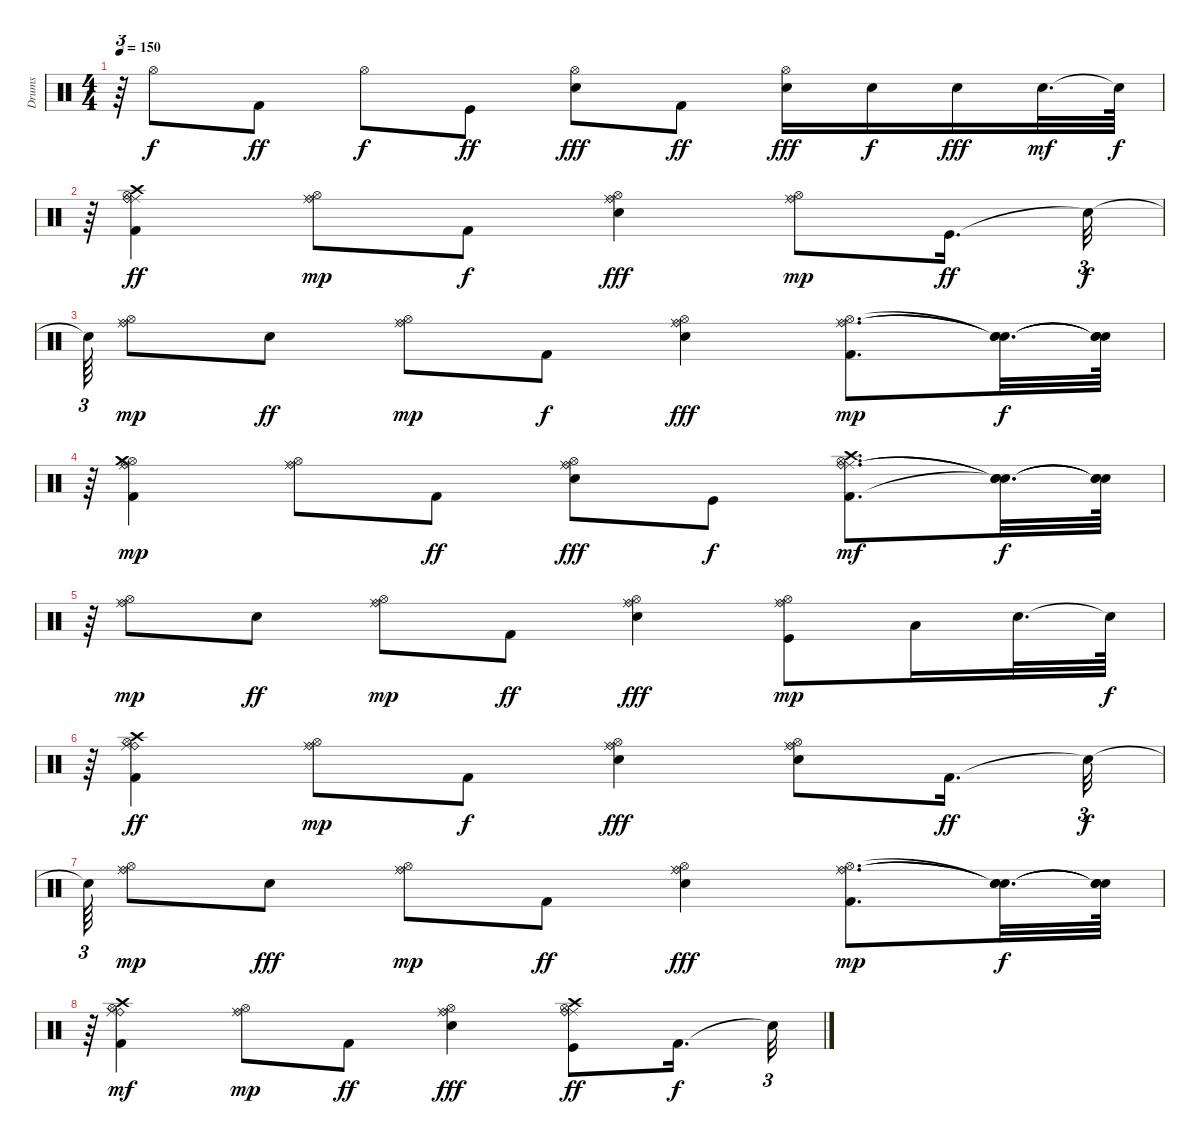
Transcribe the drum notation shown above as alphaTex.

\track ("Drums" "Drums") {instrument percussion}
\staff {score}
\articulation defaults
\ts (4 4)
\tempo 150
\clef neutral
\ks c
r.64{tu (3 2) dy f} "Hi-Hat (open)".8 "Kick (hit) 2".8{dy ff} "Hi-Hat (open)".8{dy f} "Kick (hit)".8{dy ff} ("Hi-Hat (open)" "Electric Snare (hit)").8{dy fff} "Kick (hit) 2".8{dy ff} ("Hi-Hat (open)" "Electric Snare (hit)").16{dy fff} "Electric Snare (hit)".16{dy f} "Electric Snare (hit)".16{dy fff} "Electric Snare (hit)".32{d dy mf} "Snare (hit)"{t}.64{dy f} |
r.64{tu (3 2)} ("Ride (middle)" "Ride (bell)" "Crash high (hit)" "Kick (hit) 2" "Hi-Hat (open)").4{dy ff} ("Ride (middle)" "Ride (bell)" "Hi-Hat (open)").8{dy mp} "Kick (hit) 2".8{dy f} ("Ride (middle)" "Ride (bell)" "Electric Snare (hit)" "Hi-Hat (open)").4{dy fff} ("Ride (middle)" "Ride (bell)" "Hi-Hat (open)").8{dy mp} "Kick (hit)".16{d dy ff} "Snare (hit)"{t}.32{tu (3 2) dy f} |
"Snare (hit)"{t}.64{tu (3 2)} ("Ride (bell)" "Ride (middle)" "Hi-Hat (open)").8{dy mp} "Electric Snare (hit)".8{dy ff} ("Ride (middle)" "Ride (bell)" "Hi-Hat (open)").8{dy mp} "Kick (hit) 2".8{dy f} ("Ride (middle)" "Ride (bell)" "Electric Snare (hit)" "Hi-Hat (open)").4{dy fff} ("Ride (middle)" "Ride (bell)" "Hi-Hat (open)" "Kick (hit) 2").8{d dy mp} ("Snare (hit)"{t} "Snare (hit)"{t} "Snare (hit)"{t}).32{d dy f} ("Snare (hit)"{t} "Snare (hit)"{t} "Snare (hit)"{t}).64 |
r.64{tu (3 2)} ("Ride (bell)" "Ride (middle)" "Kick (hit) 2" "Hi-Hat (open)" "Crash medium (hit)").4{dy mp} ("Ride (middle)" "Ride (bell)" "Hi-Hat (open)").8 "Kick (hit) 2".8{dy ff} ("Ride (middle)" "Ride (bell)" "Electric Snare (hit)" "Hi-Hat (open)").8{dy fff} "Kick (hit)".8{dy f} ("Ride (middle)" "Ride (bell)" "Kick (hit) 2" "Crash high (hit)" "Hi-Hat (open)").8{d dy mf} ("Snare (hit)"{t} "Snare (hit)"{t} "Snare (hit)"{t}).32{d dy f} ("Snare (hit)"{t} "Snare (hit)"{t} "Snare (hit)"{t}).64 |
r.64{tu (3 2)} ("Ride (bell)" "Ride (middle)" "Hi-Hat (open)").8{dy mp} "Electric Snare (hit)".8{dy ff} ("Ride (middle)" "Ride (bell)" "Hi-Hat (open)").8{dy mp} "Kick (hit) 2".8{dy ff} ("Ride (middle)" "Ride (bell)" "Electric Snare (hit)" "Hi-Hat (open)").4{dy fff} ("Ride (middle)" "Ride (bell)" "Hi-Hat (open)" "Kick (hit)").8{dy mp} "Low Tom (hit)".16 "Electric Snare (hit)".32{d} "Snare (hit)"{t}.64{dy f} |
r.64{tu (3 2)} ("Crash high (hit)" "Ride (bell)" "Ride (middle)" "Kick (hit) 2" "Hi-Hat (open)").4{dy ff} ("Ride (middle)" "Ride (bell)" "Hi-Hat (open)").8{dy mp} "Kick (hit) 2".8{dy f} ("Ride (middle)" "Ride (bell)" "Hi-Hat (open)" "Electric Snare (hit)").4{dy fff} ("Ride (middle)" "Ride (bell)" "Hi-Hat (open)" "Electric Snare (hit)").8 "Kick (hit) 2".16{d dy ff} "Snare (hit)"{t}.32{tu (3 2) dy f} |
"Snare (hit)"{t}.64{tu (3 2)} ("Ride (bell)" "Ride (middle)" "Hi-Hat (open)").8{dy mp} "Electric Snare (hit)".8{dy fff} ("Ride (middle)" "Ride (bell)" "Hi-Hat (open)").8{dy mp} "Kick (hit) 2".8{dy ff} ("Ride (middle)" "Ride (bell)" "Hi-Hat (open)" "Electric Snare (hit)").4{dy fff} ("Ride (middle)" "Ride (bell)" "Hi-Hat (open)" "Kick (hit) 2").8{d dy mp} ("Snare (hit)"{t} "Snare (hit)"{t} "Snare (hit)"{t}).32{d dy f} ("Snare (hit)"{t} "Snare (hit)"{t} "Snare (hit)"{t}).64 |
r.64{tu (3 2)} ("Ride (bell)" "Ride (middle)" "Kick (hit) 2" "Hi-Hat (open)" "Crash high (hit)").4{dy mf} ("Ride (middle)" "Ride (bell)" "Hi-Hat (open)").8{dy mp} "Kick (hit) 2".8{dy ff} ("Ride (middle)" "Ride (bell)" "Electric Snare (hit)" "Hi-Hat (open)").4{dy fff} ("Ride (middle)" "Ride (bell)" "Crash high (hit)" "Hi-Hat (open)" "Kick (hit)").8{dy ff} "Kick (hit) 2".16{d dy f} "Snare (hit)"{t}.32{tu (3 2)}
